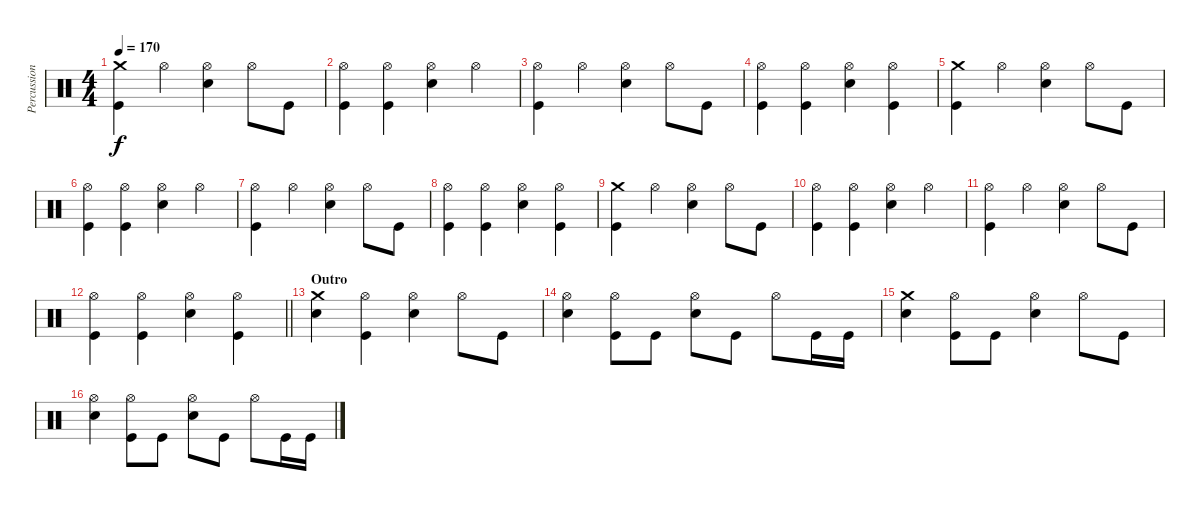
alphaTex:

\track ("Percussion" "Percussion") {instrument percussion}
\staff {score}
\articulation defaults
\ts (4 4)
\tempo 170
\clef neutral
\ks c
("Crash medium (hit)" "Kick (hit)").4{dy f} "Hi-Hat (open)".4 ("Hi-Hat (open)" "Electric Snare (hit)").4 "Hi-Hat (open)".8 "Kick (hit)".8 |
("Hi-Hat (open)" "Kick (hit)").4 ("Hi-Hat (open)" "Kick (hit)").4 ("Hi-Hat (open)" "Electric Snare (hit)").4 "Hi-Hat (open)".4 |
("Hi-Hat (open)" "Kick (hit)").4 "Hi-Hat (open)".4 ("Hi-Hat (open)" "Electric Snare (hit)").4 "Hi-Hat (open)".8 "Kick (hit)".8 |
("Hi-Hat (open)" "Kick (hit)").4 ("Hi-Hat (open)" "Kick (hit)").4 ("Hi-Hat (open)" "Electric Snare (hit)").4 ("Hi-Hat (open)" "Kick (hit)").4 |
("Crash medium (hit)" "Kick (hit)").4 "Hi-Hat (open)".4 ("Hi-Hat (open)" "Electric Snare (hit)").4 "Hi-Hat (open)".8 "Kick (hit)".8 |
("Hi-Hat (open)" "Kick (hit)").4 ("Hi-Hat (open)" "Kick (hit)").4 ("Hi-Hat (open)" "Electric Snare (hit)").4 "Hi-Hat (open)".4 |
("Hi-Hat (open)" "Kick (hit)").4 "Hi-Hat (open)".4 ("Hi-Hat (open)" "Electric Snare (hit)").4 "Hi-Hat (open)".8 "Kick (hit)".8 |
("Hi-Hat (open)" "Kick (hit)").4 ("Hi-Hat (open)" "Kick (hit)").4 ("Hi-Hat (open)" "Electric Snare (hit)").4 ("Hi-Hat (open)" "Kick (hit)").4 |
("Crash medium (hit)" "Kick (hit)").4 "Hi-Hat (open)".4 ("Hi-Hat (open)" "Electric Snare (hit)").4 "Hi-Hat (open)".8 "Kick (hit)".8 |
("Hi-Hat (open)" "Kick (hit)").4 ("Hi-Hat (open)" "Kick (hit)").4 ("Hi-Hat (open)" "Electric Snare (hit)").4 "Hi-Hat (open)".4 |
("Hi-Hat (open)" "Kick (hit)").4 "Hi-Hat (open)".4 ("Hi-Hat (open)" "Electric Snare (hit)").4 "Hi-Hat (open)".8 "Kick (hit)".8 |
\barLineRight lightlight
("Hi-Hat (open)" "Kick (hit)").4 ("Hi-Hat (open)" "Kick (hit)").4 ("Hi-Hat (open)" "Electric Snare (hit)").4 ("Hi-Hat (open)" "Kick (hit)").4 |
\section ("" "Outro")
("Crash medium (hit)" "Electric Snare (hit)").4 ("Hi-Hat (open)" "Kick (hit)").4 ("Hi-Hat (open)" "Electric Snare (hit)").4 "Hi-Hat (open)".8 "Kick (hit)".8 |
("Hi-Hat (open)" "Electric Snare (hit)").4 ("Hi-Hat (open)" "Kick (hit)").8 "Kick (hit)".8 ("Hi-Hat (open)" "Electric Snare (hit)").8 "Kick (hit)".8 "Hi-Hat (open)".8 "Kick (hit)".16 "Kick (hit)".16 |
("Crash medium (hit)" "Electric Snare (hit)").4 ("Hi-Hat (open)" "Kick (hit)").8 "Kick (hit)".8 ("Hi-Hat (open)" "Electric Snare (hit)").4 "Hi-Hat (open)".8 "Kick (hit)".8 |
("Hi-Hat (open)" "Electric Snare (hit)").4 ("Hi-Hat (open)" "Kick (hit)").8 "Kick (hit)".8 ("Hi-Hat (open)" "Electric Snare (hit)").8 "Kick (hit)".8 "Hi-Hat (open)".8 "Kick (hit)".16 "Kick (hit)".16
